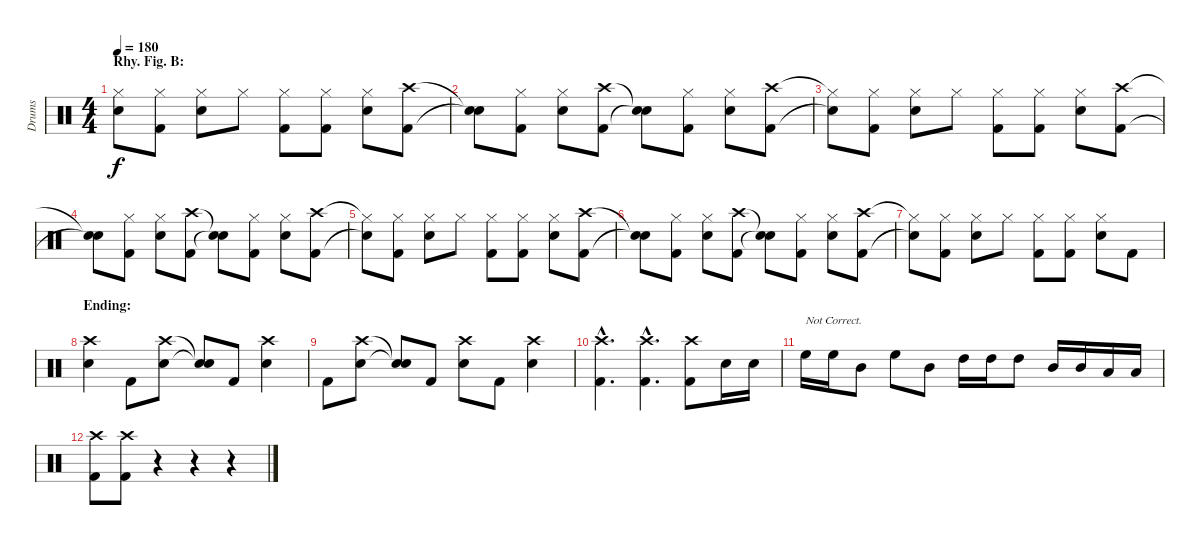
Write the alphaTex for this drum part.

\track ("Drums" "Drums") {instrument percussion}
\staff {score}
\articulation defaults
\ts (4 4)
\section ("" "Rhy. Fig. B:")
\tempo 180
\clef neutral
\ks c
("Hi-Hat (closed)"{t} "Snare (hit)"{t}).8{dy f} ("Hi-Hat (closed)" "Kick (hit) 2").8 ("Hi-Hat (closed)" "Snare (hit) 2").8 "Hi-Hat (closed)".8 ("Hi-Hat (closed)" "Kick (hit) 2").8 ("Hi-Hat (closed)" "Kick (hit) 2").8 ("Hi-Hat (closed)" "Snare (hit) 2").8 ("Crash high (hit)" "Kick (hit) 2").8 |
("Snare (hit)"{t} "Snare (hit)"{t}).8 ("Hi-Hat (closed)" "Kick (hit) 2").8 ("Hi-Hat (closed)" "Snare (hit) 2").8 ("Crash high (hit)" "Kick (hit) 2").8 ("Snare (hit)"{t} "Snare (hit)"{t}).8 ("Hi-Hat (closed)" "Kick (hit) 2").8 ("Hi-Hat (closed)" "Snare (hit) 2").8 ("Crash high (hit)" "Kick (hit) 2").8 |
("Hi-Hat (closed)"{t} "Snare (hit)"{t}).8 ("Hi-Hat (closed)" "Kick (hit) 2").8 ("Hi-Hat (closed)" "Snare (hit) 2").8 "Hi-Hat (closed)".8 ("Hi-Hat (closed)" "Kick (hit) 2").8 ("Hi-Hat (closed)" "Kick (hit) 2").8 ("Hi-Hat (closed)" "Snare (hit) 2").8 ("Crash high (hit)" "Kick (hit) 2").8 |
("Snare (hit)"{t} "Snare (hit)"{t}).8 ("Hi-Hat (closed)" "Kick (hit) 2").8 ("Hi-Hat (closed)" "Snare (hit) 2").8 ("Crash high (hit)" "Kick (hit) 2").8 ("Snare (hit)"{t} "Snare (hit)"{t}).8 ("Hi-Hat (closed)" "Kick (hit) 2").8 ("Hi-Hat (closed)" "Snare (hit) 2").8 ("Crash high (hit)" "Kick (hit) 2").8 |
("Hi-Hat (closed)"{t} "Snare (hit)"{t}).8 ("Hi-Hat (closed)" "Kick (hit) 2").8 ("Hi-Hat (closed)" "Snare (hit) 2").8 "Hi-Hat (closed)".8 ("Hi-Hat (closed)" "Kick (hit) 2").8 ("Hi-Hat (closed)" "Kick (hit) 2").8 ("Hi-Hat (closed)" "Snare (hit) 2").8 ("Crash high (hit)" "Kick (hit) 2").8 |
("Snare (hit)"{t} "Snare (hit)"{t}).8 ("Hi-Hat (closed)" "Kick (hit) 2").8 ("Hi-Hat (closed)" "Snare (hit) 2").8 ("Crash high (hit)" "Kick (hit) 2").8 ("Snare (hit)"{t} "Snare (hit)"{t}).8 ("Hi-Hat (closed)" "Kick (hit) 2").8 ("Hi-Hat (closed)" "Snare (hit) 2").8 ("Crash high (hit)" "Kick (hit) 2").8 |
("Hi-Hat (closed)"{t} "Snare (hit)"{t}).8 ("Hi-Hat (closed)" "Kick (hit) 2").8 ("Hi-Hat (closed)" "Snare (hit) 2").8 "Hi-Hat (closed)".8 ("Hi-Hat (closed)" "Kick (hit) 2").8 ("Hi-Hat (closed)" "Kick (hit) 2").8 ("Hi-Hat (closed)" "Snare (hit) 2").8 "Kick (hit) 2".8 |
\section ("" "Ending:")
("Crash high (hit)" "Snare (hit) 2").4 "Kick (hit) 2".8 ("Crash high (hit)" "Snare (hit) 2").8 ("Snare (hit)"{t} "Snare (hit)"{t}).8 "Kick (hit) 2".8 ("Crash high (hit)" "Snare (hit) 2").4 |
"Kick (hit) 2".8 ("Crash high (hit)" "Snare (hit) 2").8 ("Snare (hit)"{t} "Snare (hit)"{t}).8 "Kick (hit) 2".8 ("Crash high (hit)" "Snare (hit) 2").8 "Kick (hit) 2".8 ("Crash high (hit)" "Snare (hit) 2").4 |
("Crash high (hit)"{hac} "Kick (hit) 2"{hac}).4{d} ("Crash high (hit)"{hac} "Kick (hit) 2"{hac}).4{d} ("Crash high (hit)" "Kick (hit) 2").8 "Snare (hit) 2".16 "Snare (hit) 2".16 |
"High Floor Tom (hit)".16{txt "Not Correct."} "High Floor Tom (hit)".16 "Mid Tom (hit)".8 "High Floor Tom (hit)".8 "Mid Tom (hit)".8 "High Tom (hit)".16 "High Tom (hit)".16 "High Tom (hit)".8 "Mid Tom (hit)".16 "Mid Tom (hit)".16 "Low Tom (hit)".16 "Low Tom (hit)".16 |
("Crash high (hit)" "Kick (hit) 2").8 ("Crash high (hit)" "Kick (hit) 2").8 r.4 r.4 r.4
